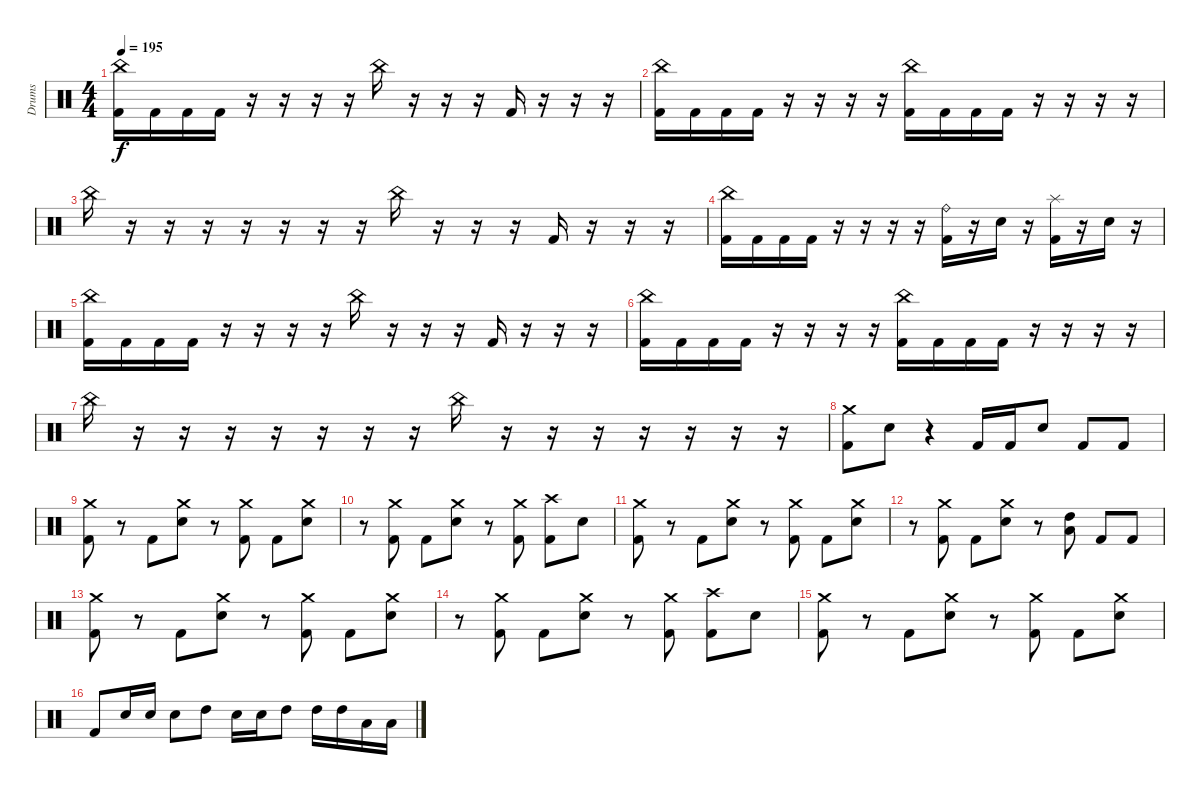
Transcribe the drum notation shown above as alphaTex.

\track ("Drums" "Drums") {instrument percussion}
\staff {score}
\articulation defaults
\ts (4 4)
\tempo 195
\clef neutral
\ks c
("China (hit)" "Kick (hit) 2").16{dy f} "Kick (hit) 2".16 "Kick (hit) 2".16 "Kick (hit) 2".16 r.16 r.16 r.16 r.16 "China (hit)".16 r.16 r.16 r.16 "Kick (hit) 2".16 r.16 r.16 r.16 |
("China (hit)" "Kick (hit) 2").16 "Kick (hit) 2".16 "Kick (hit) 2".16 "Kick (hit) 2".16 r.16 r.16 r.16 r.16 ("China (hit)" "Kick (hit) 2").16 "Kick (hit) 2".16 "Kick (hit) 2".16 "Kick (hit) 2".16 r.16 r.16 r.16 r.16 |
"China (hit)".16 r.16 r.16 r.16 r.16 r.16 r.16 r.16 "China (hit)".16 r.16 r.16 r.16 "Kick (hit) 2".16 r.16 r.16 r.16 |
("China (hit)" "Kick (hit) 2").16 "Kick (hit) 2".16 "Kick (hit) 2".16 "Kick (hit) 2".16 r.16 r.16 r.16 r.16 ("Ride (bell)" "Kick (hit) 2").16 r.16 "Electric Snare (hit)".16 r.16 ("Splash (hit)" "Kick (hit) 2").16 r.16 "Electric Snare (hit)".16 r.16 |
("China (hit)" "Kick (hit) 2").16 "Kick (hit) 2".16 "Kick (hit) 2".16 "Kick (hit) 2".16 r.16 r.16 r.16 r.16 "China (hit)".16 r.16 r.16 r.16 "Kick (hit) 2".16 r.16 r.16 r.16 |
("China (hit)" "Kick (hit) 2").16 "Kick (hit) 2".16 "Kick (hit) 2".16 "Kick (hit) 2".16 r.16 r.16 r.16 r.16 ("China (hit)" "Kick (hit) 2").16 "Kick (hit) 2".16 "Kick (hit) 2".16 "Kick (hit) 2".16 r.16 r.16 r.16 r.16 |
"China (hit)".16 r.16 r.16 r.16 r.16 r.16 r.16 r.16 "China (hit)".16 r.16 r.16 r.16 r.16 r.16 r.16 r.16 |
("Crash medium (hit)" "Kick (hit) 2").8 "Electric Snare (hit)".8 r.4 "Kick (hit) 2".16 "Kick (hit) 2".16 "Electric Snare (hit)".8 "Kick (hit) 2".8 "Kick (hit) 2".8 |
("Crash medium (hit)" "Kick (hit) 2").8 r.8 "Kick (hit) 2".8 ("Crash medium (hit)" "Electric Snare (hit)").8 r.8 ("Crash medium (hit)" "Kick (hit) 2").8 "Kick (hit) 2".8 ("Crash medium (hit)" "Electric Snare (hit)").8 |
r.8 ("Crash medium (hit)" "Kick (hit) 2").8 "Kick (hit) 2".8 ("Crash medium (hit)" "Electric Snare (hit)").8 r.8 ("Crash medium (hit)" "Kick (hit) 2").8 ("Crash high (hit)" "Kick (hit) 2").8 "Electric Snare (hit)".8 |
("Crash medium (hit)" "Kick (hit) 2").8 r.8 "Kick (hit) 2".8 ("Crash medium (hit)" "Electric Snare (hit)").8 r.8 ("Crash medium (hit)" "Kick (hit) 2").8 "Kick (hit) 2".8 ("Crash medium (hit)" "Electric Snare (hit)").8 |
r.8 ("Crash medium (hit)" "Kick (hit) 2").8 "Kick (hit) 2".8 ("Crash medium (hit)" "Electric Snare (hit)").8 r.8 ("High Tom (hit)" "Low Tom (hit)").8 "Kick (hit) 2".8 "Kick (hit) 2".8 |
("Crash medium (hit)" "Kick (hit) 2").8 r.8 "Kick (hit) 2".8 ("Crash medium (hit)" "Electric Snare (hit)").8 r.8 ("Crash medium (hit)" "Kick (hit) 2").8 "Kick (hit) 2".8 ("Crash medium (hit)" "Electric Snare (hit)").8 |
r.8 ("Crash medium (hit)" "Kick (hit) 2").8 "Kick (hit) 2".8 ("Crash medium (hit)" "Electric Snare (hit)").8 r.8 ("Crash medium (hit)" "Kick (hit) 2").8 ("Crash high (hit)" "Kick (hit) 2").8 "Electric Snare (hit)".8 |
("Crash medium (hit)" "Kick (hit) 2").8 r.8 "Kick (hit) 2".8 ("Crash medium (hit)" "Electric Snare (hit)").8 r.8 ("Crash medium (hit)" "Kick (hit) 2").8 "Kick (hit) 2".8 ("Crash medium (hit)" "Electric Snare (hit)").8 |
"Kick (hit) 2".8 "Electric Snare (hit)".16 "Electric Snare (hit)".16 "Electric Snare (hit)".8 "High Tom (hit)".8 "Electric Snare (hit)".16 "Electric Snare (hit)".16 "High Tom (hit)".8 "High Tom (hit)".16 "High Tom (hit)".16 "Low Tom (hit)".16 "Low Tom (hit)".16
